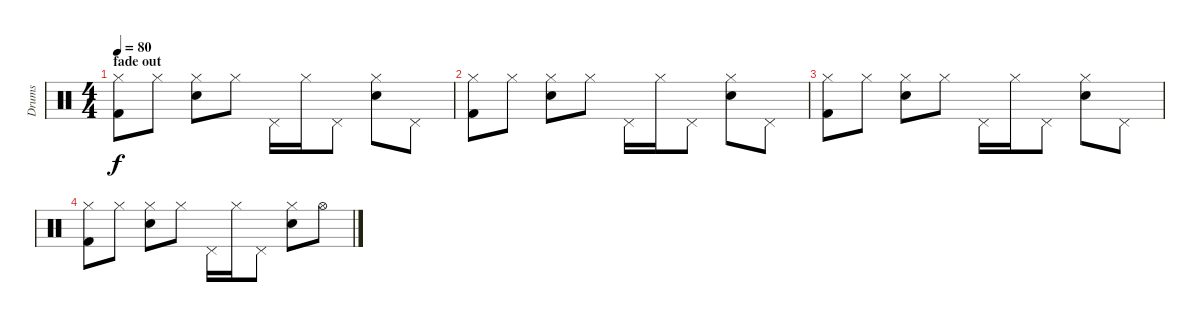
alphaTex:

\track ("Drums" "Drums") {instrument percussion}
\staff {score}
\articulation defaults
\ts (4 4)
\section ("" "fade out")
\tempo 80
\clef neutral
\ks c
("Kick (hit) 2" "Hi-Hat (closed)").8{dy f} "Hi-Hat (closed)".8 ("Snare (hit) 2" "Hi-Hat (closed)").8 "Hi-Hat (closed)".8 "Pedal Hi-Hat (hit)".16 "Hi-Hat (closed)".16 "Pedal Hi-Hat (hit)".8 ("Snare (hit) 2" "Hi-Hat (closed)").8 "Pedal Hi-Hat (hit)".8 |
("Kick (hit) 2" "Hi-Hat (closed)").8 "Hi-Hat (closed)".8 ("Snare (hit) 2" "Hi-Hat (closed)").8 "Hi-Hat (closed)".8 "Pedal Hi-Hat (hit)".16 "Hi-Hat (closed)".16 "Pedal Hi-Hat (hit)".8 ("Snare (hit) 2" "Hi-Hat (closed)").8 "Pedal Hi-Hat (hit)".8 |
("Kick (hit) 2" "Hi-Hat (closed)").8 "Hi-Hat (closed)".8 ("Snare (hit) 2" "Hi-Hat (closed)").8 "Hi-Hat (closed)".8 "Pedal Hi-Hat (hit)".16 "Hi-Hat (closed)".16 "Pedal Hi-Hat (hit)".8 ("Snare (hit) 2" "Hi-Hat (closed)").8 "Pedal Hi-Hat (hit)".8 |
("Kick (hit) 2" "Hi-Hat (closed)").8 "Hi-Hat (closed)".8 ("Snare (hit) 2" "Hi-Hat (closed)").8 "Hi-Hat (closed)".8 "Pedal Hi-Hat (hit)".16 "Hi-Hat (closed)".16 "Pedal Hi-Hat (hit)".8 ("Snare (hit) 2" "Hi-Hat (closed)").8 "Hi-Hat (open)".8
